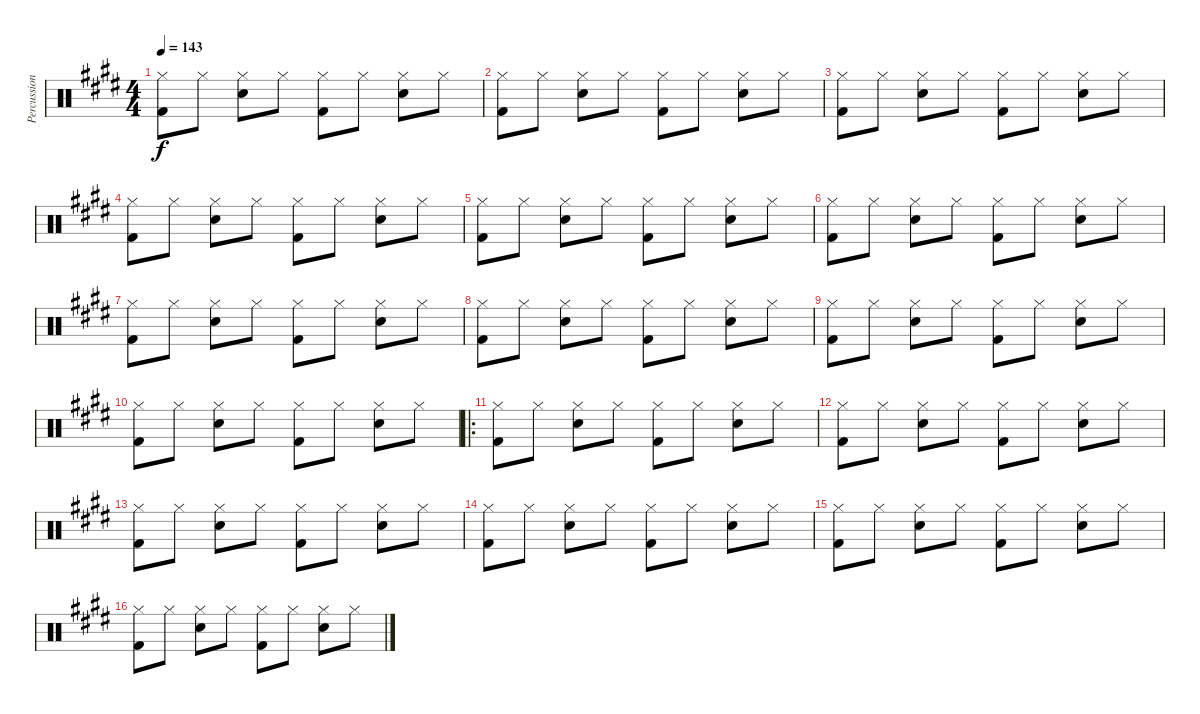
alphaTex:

\track ("Percussion" "Percussion") {instrument percussion}
\staff {score}
\articulation defaults
\ts (4 4)
\tempo 143
\clef neutral
\ks e
("Hi-Hat (closed)" "Kick (hit) 2").8{dy f} "Hi-Hat (closed)".8 ("Hi-Hat (closed)" "Snare (hit) 2").8 "Hi-Hat (closed)".8 ("Hi-Hat (closed)" "Kick (hit) 2").8 "Hi-Hat (closed)".8 ("Hi-Hat (closed)" "Snare (hit) 2").8 "Hi-Hat (closed)".8 |
("Hi-Hat (closed)" "Kick (hit) 2").8 "Hi-Hat (closed)".8 ("Hi-Hat (closed)" "Snare (hit) 2").8 "Hi-Hat (closed)".8 ("Hi-Hat (closed)" "Kick (hit) 2").8 "Hi-Hat (closed)".8 ("Hi-Hat (closed)" "Snare (hit) 2").8 "Hi-Hat (closed)".8 |
("Hi-Hat (closed)" "Kick (hit) 2").8 "Hi-Hat (closed)".8 ("Hi-Hat (closed)" "Snare (hit) 2").8 "Hi-Hat (closed)".8 ("Hi-Hat (closed)" "Kick (hit) 2").8 "Hi-Hat (closed)".8 ("Hi-Hat (closed)" "Snare (hit) 2").8 "Hi-Hat (closed)".8 |
("Hi-Hat (closed)" "Kick (hit) 2").8 "Hi-Hat (closed)".8 ("Hi-Hat (closed)" "Snare (hit) 2").8 "Hi-Hat (closed)".8 ("Hi-Hat (closed)" "Kick (hit) 2").8 "Hi-Hat (closed)".8 ("Hi-Hat (closed)" "Snare (hit) 2").8 "Hi-Hat (closed)".8 |
("Hi-Hat (closed)" "Kick (hit) 2").8 "Hi-Hat (closed)".8 ("Hi-Hat (closed)" "Snare (hit) 2").8 "Hi-Hat (closed)".8 ("Hi-Hat (closed)" "Kick (hit) 2").8 "Hi-Hat (closed)".8 ("Hi-Hat (closed)" "Snare (hit) 2").8 "Hi-Hat (closed)".8 |
("Hi-Hat (closed)" "Kick (hit) 2").8 "Hi-Hat (closed)".8 ("Hi-Hat (closed)" "Snare (hit) 2").8 "Hi-Hat (closed)".8 ("Hi-Hat (closed)" "Kick (hit) 2").8 "Hi-Hat (closed)".8 ("Hi-Hat (closed)" "Snare (hit) 2").8 "Hi-Hat (closed)".8 |
("Hi-Hat (closed)" "Kick (hit) 2").8 "Hi-Hat (closed)".8 ("Hi-Hat (closed)" "Snare (hit) 2").8 "Hi-Hat (closed)".8 ("Hi-Hat (closed)" "Kick (hit) 2").8 "Hi-Hat (closed)".8 ("Hi-Hat (closed)" "Snare (hit) 2").8 "Hi-Hat (closed)".8 |
("Hi-Hat (closed)" "Kick (hit) 2").8 "Hi-Hat (closed)".8 ("Hi-Hat (closed)" "Snare (hit) 2").8 "Hi-Hat (closed)".8 ("Hi-Hat (closed)" "Kick (hit) 2").8 "Hi-Hat (closed)".8 ("Hi-Hat (closed)" "Snare (hit) 2").8 "Hi-Hat (closed)".8 |
("Hi-Hat (closed)" "Kick (hit) 2").8 "Hi-Hat (closed)".8 ("Hi-Hat (closed)" "Snare (hit) 2").8 "Hi-Hat (closed)".8 ("Hi-Hat (closed)" "Kick (hit) 2").8 "Hi-Hat (closed)".8 ("Hi-Hat (closed)" "Snare (hit) 2").8 "Hi-Hat (closed)".8 |
("Hi-Hat (closed)" "Kick (hit) 2").8 "Hi-Hat (closed)".8 ("Hi-Hat (closed)" "Snare (hit) 2").8 "Hi-Hat (closed)".8 ("Hi-Hat (closed)" "Kick (hit) 2").8 "Hi-Hat (closed)".8 ("Hi-Hat (closed)" "Snare (hit) 2").8 "Hi-Hat (closed)".8 |
\ro
("Hi-Hat (closed)" "Kick (hit) 2").8 "Hi-Hat (closed)".8 ("Hi-Hat (closed)" "Snare (hit) 2").8 "Hi-Hat (closed)".8 ("Hi-Hat (closed)" "Kick (hit) 2").8 "Hi-Hat (closed)".8 ("Hi-Hat (closed)" "Snare (hit) 2").8 "Hi-Hat (closed)".8 |
("Hi-Hat (closed)" "Kick (hit) 2").8 "Hi-Hat (closed)".8 ("Hi-Hat (closed)" "Snare (hit) 2").8 "Hi-Hat (closed)".8 ("Hi-Hat (closed)" "Kick (hit) 2").8 "Hi-Hat (closed)".8 ("Hi-Hat (closed)" "Snare (hit) 2").8 "Hi-Hat (closed)".8 |
("Hi-Hat (closed)" "Kick (hit) 2").8 "Hi-Hat (closed)".8 ("Hi-Hat (closed)" "Snare (hit) 2").8 "Hi-Hat (closed)".8 ("Hi-Hat (closed)" "Kick (hit) 2").8 "Hi-Hat (closed)".8 ("Hi-Hat (closed)" "Snare (hit) 2").8 "Hi-Hat (closed)".8 |
("Hi-Hat (closed)" "Kick (hit) 2").8 "Hi-Hat (closed)".8 ("Hi-Hat (closed)" "Snare (hit) 2").8 "Hi-Hat (closed)".8 ("Hi-Hat (closed)" "Kick (hit) 2").8 "Hi-Hat (closed)".8 ("Hi-Hat (closed)" "Snare (hit) 2").8 "Hi-Hat (closed)".8 |
("Hi-Hat (closed)" "Kick (hit) 2").8 "Hi-Hat (closed)".8 ("Hi-Hat (closed)" "Snare (hit) 2").8 "Hi-Hat (closed)".8 ("Hi-Hat (closed)" "Kick (hit) 2").8 "Hi-Hat (closed)".8 ("Hi-Hat (closed)" "Snare (hit) 2").8 "Hi-Hat (closed)".8 |
("Hi-Hat (closed)" "Kick (hit) 2").8 "Hi-Hat (closed)".8 ("Hi-Hat (closed)" "Snare (hit) 2").8 "Hi-Hat (closed)".8 ("Hi-Hat (closed)" "Kick (hit) 2").8 "Hi-Hat (closed)".8 ("Hi-Hat (closed)" "Snare (hit) 2").8 "Hi-Hat (closed)".8
